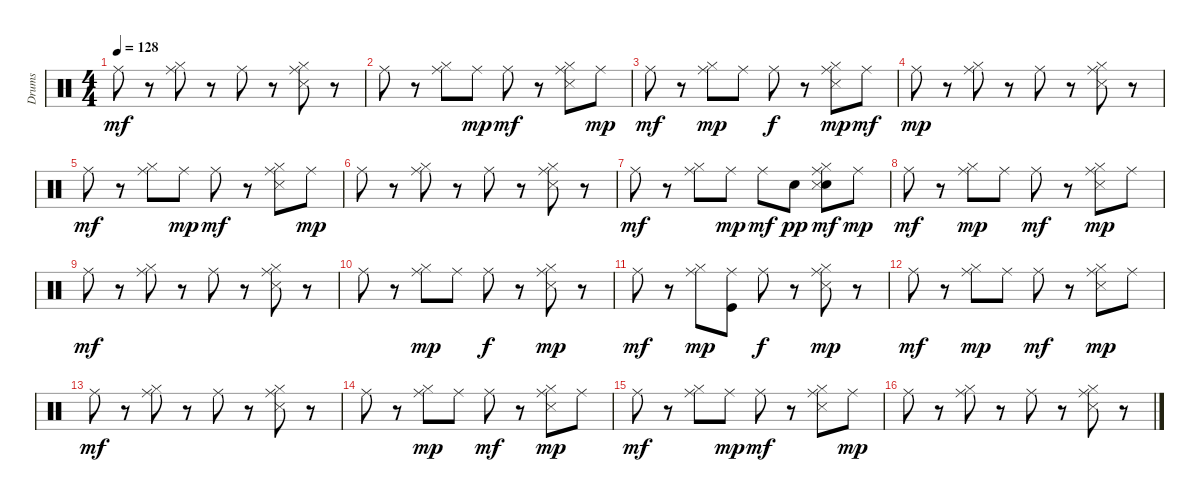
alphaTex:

\track ("Drums" "Drums") {instrument percussion}
\staff {score}
\articulation defaults
\ts (4 4)
\tempo 128
\clef neutral
\ks c "Ride (middle)".8{dy mf}
r.8 ("Hi-Hat (closed)" "Ride (middle)").8 r.8 "Ride (middle)".8 r.8 ("Hi-Hat (closed)" "Snare (side stick) 3" "Ride (middle)").8 r.8 |
"Ride (middle)".8 r.8 ("Hi-Hat (closed)" "Ride (middle)").8 "Ride (middle)".8{dy mp} "Ride (middle)".8{dy mf} r.8 ("Hi-Hat (closed)" "Snare (side stick) 3" "Ride (middle)").8 "Ride (middle)".8{dy mp} |
"Ride (middle)".8{dy mf} r.8 ("Hi-Hat (closed)" "Ride (middle)").8{dy mp} "Ride (middle)".8 "Ride (middle)".8{dy f} r.8 ("Hi-Hat (closed)" "Snare (side stick) 3" "Ride (middle)").8{dy mp} "Ride (middle)".8{dy mf} |
"Ride (middle)".8{dy mp} r.8 ("Hi-Hat (closed)" "Ride (middle)").8 r.8 "Ride (middle)".8 r.8 ("Hi-Hat (closed)" "Snare (side stick) 3" "Ride (middle)").8 r.8 |
"Ride (middle)".8{dy mf} r.8 ("Hi-Hat (closed)" "Ride (middle)").8 "Ride (middle)".8{dy mp} "Ride (middle)".8{dy mf} r.8 ("Hi-Hat (closed)" "Snare (side stick) 3" "Ride (middle)").8 "Ride (middle)".8{dy mp} |
"Ride (middle)".8 r.8 ("Hi-Hat (closed)" "Ride (middle)").8 r.8 "Ride (middle)".8 r.8 ("Hi-Hat (closed)" "Snare (side stick) 3" "Ride (middle)").8 r.8 |
"Ride (middle)".8{dy mf} r.8 ("Hi-Hat (closed)" "Ride (middle)").8 "Ride (middle)".8{dy mp} "Ride (middle)".8{dy mf} "Snare (hit) 2".8{dy pp} ("Snare (hit) 2" "Hi-Hat (closed)" "Snare (side stick) 3" "Ride (middle)").8{dy mf} "Ride (middle)".8{dy mp} |
"Ride (middle)".8{dy mf} r.8 ("Hi-Hat (closed)" "Ride (middle)").8{dy mp} "Ride (middle)".8 "Ride (middle)".8{dy mf} r.8 ("Hi-Hat (closed)" "Snare (side stick) 3" "Ride (middle)").8{dy mp} "Ride (middle)".8 |
"Ride (middle)".8{dy mf} r.8 ("Hi-Hat (closed)" "Ride (middle)").8 r.8 "Ride (middle)".8 r.8 ("Hi-Hat (closed)" "Snare (side stick) 3" "Ride (middle)").8 r.8 |
"Ride (middle)".8 r.8 ("Hi-Hat (closed)" "Ride (middle)").8{dy mp} "Ride (middle)".8 "Ride (middle)".8{dy f} r.8 ("Hi-Hat (closed)" "Snare (side stick) 3" "Ride (middle)").8{dy mp} r.8 |
"Ride (middle)".8{dy mf} r.8 ("Hi-Hat (closed)" "Ride (middle)").8{dy mp} ("Kick (hit)" "Ride (middle)").8 "Ride (middle)".8{dy f} r.8 ("Hi-Hat (closed)" "Snare (side stick) 3" "Ride (middle)").8{dy mp} r.8 |
"Ride (middle)".8{dy mf} r.8 ("Hi-Hat (closed)" "Ride (middle)").8{dy mp} "Ride (middle)".8 "Ride (middle)".8{dy mf} r.8 ("Hi-Hat (closed)" "Snare (side stick) 3" "Ride (middle)").8{dy mp} "Ride (middle)".8 |
"Ride (middle)".8{dy mf} r.8 ("Hi-Hat (closed)" "Ride (middle)").8 r.8 "Ride (middle)".8 r.8 ("Hi-Hat (closed)" "Snare (side stick) 3" "Ride (middle)").8 r.8 |
"Ride (middle)".8 r.8 ("Hi-Hat (closed)" "Ride (middle)").8{dy mp} "Ride (middle)".8 "Ride (middle)".8{dy mf} r.8 ("Hi-Hat (closed)" "Snare (side stick) 3" "Ride (middle)").8{dy mp} "Ride (middle)".8 |
"Ride (middle)".8{dy mf} r.8 ("Hi-Hat (closed)" "Ride (middle)").8 "Ride (middle)".8{dy mp} "Ride (middle)".8{dy mf} r.8 ("Hi-Hat (closed)" "Snare (side stick) 3" "Ride (middle)").8 "Ride (middle)".8{dy mp} |
"Ride (middle)".8 r.8 ("Hi-Hat (closed)" "Ride (middle)").8 r.8 "Ride (middle)".8 r.8 ("Hi-Hat (closed)" "Snare (side stick) 3" "Ride (middle)").8 r.8
